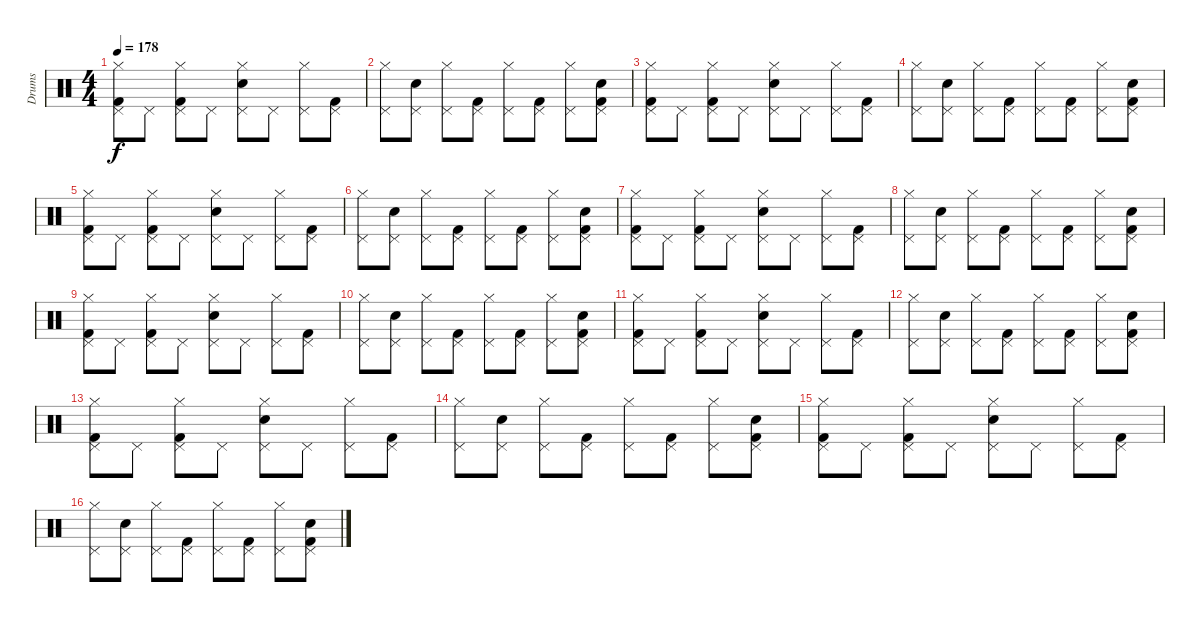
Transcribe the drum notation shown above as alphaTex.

\track ("Drums" "Drums") {instrument percussion}
\staff {score}
\articulation defaults
\ts (4 4)
\tempo 178
\clef neutral
\ks c
("Hi-Hat (closed)" "Pedal Hi-Hat (hit)" "Kick (hit) 2").8{dy f} "Pedal Hi-Hat (hit)".8 ("Hi-Hat (closed)" "Pedal Hi-Hat (hit)" "Kick (hit) 2").8 "Pedal Hi-Hat (hit)".8 ("Snare (hit) 2" "Hi-Hat (closed)" "Pedal Hi-Hat (hit)").8 "Pedal Hi-Hat (hit)".8 ("Hi-Hat (closed)" "Pedal Hi-Hat (hit)").8 ("Pedal Hi-Hat (hit)" "Kick (hit) 2").8 |
("Hi-Hat (closed)" "Pedal Hi-Hat (hit)").8 ("Snare (hit) 2" "Pedal Hi-Hat (hit)").8 ("Hi-Hat (closed)" "Pedal Hi-Hat (hit)").8 ("Kick (hit) 2" "Pedal Hi-Hat (hit)").8 ("Hi-Hat (closed)" "Pedal Hi-Hat (hit)").8 ("Kick (hit) 2" "Pedal Hi-Hat (hit)").8 ("Hi-Hat (closed)" "Pedal Hi-Hat (hit)").8 ("Kick (hit) 2" "Snare (hit) 2" "Pedal Hi-Hat (hit)").8 |
("Hi-Hat (closed)" "Pedal Hi-Hat (hit)" "Kick (hit) 2").8 "Pedal Hi-Hat (hit)".8 ("Hi-Hat (closed)" "Pedal Hi-Hat (hit)" "Kick (hit) 2").8 "Pedal Hi-Hat (hit)".8 ("Snare (hit) 2" "Hi-Hat (closed)" "Pedal Hi-Hat (hit)").8 "Pedal Hi-Hat (hit)".8 ("Hi-Hat (closed)" "Pedal Hi-Hat (hit)").8 ("Pedal Hi-Hat (hit)" "Kick (hit) 2").8 |
("Hi-Hat (closed)" "Pedal Hi-Hat (hit)").8 ("Snare (hit) 2" "Pedal Hi-Hat (hit)").8 ("Hi-Hat (closed)" "Pedal Hi-Hat (hit)").8 ("Kick (hit) 2" "Pedal Hi-Hat (hit)").8 ("Hi-Hat (closed)" "Pedal Hi-Hat (hit)").8 ("Kick (hit) 2" "Pedal Hi-Hat (hit)").8 ("Hi-Hat (closed)" "Pedal Hi-Hat (hit)").8 ("Kick (hit) 2" "Snare (hit) 2" "Pedal Hi-Hat (hit)").8 |
("Hi-Hat (closed)" "Pedal Hi-Hat (hit)" "Kick (hit) 2").8 "Pedal Hi-Hat (hit)".8 ("Hi-Hat (closed)" "Pedal Hi-Hat (hit)" "Kick (hit) 2").8 "Pedal Hi-Hat (hit)".8 ("Snare (hit) 2" "Hi-Hat (closed)" "Pedal Hi-Hat (hit)").8 "Pedal Hi-Hat (hit)".8 ("Hi-Hat (closed)" "Pedal Hi-Hat (hit)").8 ("Pedal Hi-Hat (hit)" "Kick (hit) 2").8 |
("Hi-Hat (closed)" "Pedal Hi-Hat (hit)").8 ("Snare (hit) 2" "Pedal Hi-Hat (hit)").8 ("Hi-Hat (closed)" "Pedal Hi-Hat (hit)").8 ("Kick (hit) 2" "Pedal Hi-Hat (hit)").8 ("Hi-Hat (closed)" "Pedal Hi-Hat (hit)").8 ("Kick (hit) 2" "Pedal Hi-Hat (hit)").8 ("Hi-Hat (closed)" "Pedal Hi-Hat (hit)").8 ("Kick (hit) 2" "Snare (hit) 2" "Pedal Hi-Hat (hit)").8 |
("Hi-Hat (closed)" "Pedal Hi-Hat (hit)" "Kick (hit) 2").8 "Pedal Hi-Hat (hit)".8 ("Hi-Hat (closed)" "Pedal Hi-Hat (hit)" "Kick (hit) 2").8 "Pedal Hi-Hat (hit)".8 ("Snare (hit) 2" "Hi-Hat (closed)" "Pedal Hi-Hat (hit)").8 "Pedal Hi-Hat (hit)".8 ("Hi-Hat (closed)" "Pedal Hi-Hat (hit)").8 ("Pedal Hi-Hat (hit)" "Kick (hit) 2").8 |
("Hi-Hat (closed)" "Pedal Hi-Hat (hit)").8 ("Snare (hit) 2" "Pedal Hi-Hat (hit)").8 ("Hi-Hat (closed)" "Pedal Hi-Hat (hit)").8 ("Kick (hit) 2" "Pedal Hi-Hat (hit)").8 ("Hi-Hat (closed)" "Pedal Hi-Hat (hit)").8 ("Kick (hit) 2" "Pedal Hi-Hat (hit)").8 ("Hi-Hat (closed)" "Pedal Hi-Hat (hit)").8 ("Kick (hit) 2" "Snare (hit) 2" "Pedal Hi-Hat (hit)").8 |
("Hi-Hat (closed)" "Pedal Hi-Hat (hit)" "Kick (hit) 2").8 "Pedal Hi-Hat (hit)".8 ("Hi-Hat (closed)" "Pedal Hi-Hat (hit)" "Kick (hit) 2").8 "Pedal Hi-Hat (hit)".8 ("Snare (hit) 2" "Hi-Hat (closed)" "Pedal Hi-Hat (hit)").8 "Pedal Hi-Hat (hit)".8 ("Hi-Hat (closed)" "Pedal Hi-Hat (hit)").8 ("Pedal Hi-Hat (hit)" "Kick (hit) 2").8 |
("Hi-Hat (closed)" "Pedal Hi-Hat (hit)").8 ("Snare (hit) 2" "Pedal Hi-Hat (hit)").8 ("Hi-Hat (closed)" "Pedal Hi-Hat (hit)").8 ("Kick (hit) 2" "Pedal Hi-Hat (hit)").8 ("Hi-Hat (closed)" "Pedal Hi-Hat (hit)").8 ("Kick (hit) 2" "Pedal Hi-Hat (hit)").8 ("Hi-Hat (closed)" "Pedal Hi-Hat (hit)").8 ("Kick (hit) 2" "Snare (hit) 2" "Pedal Hi-Hat (hit)").8 |
("Hi-Hat (closed)" "Pedal Hi-Hat (hit)" "Kick (hit) 2").8 "Pedal Hi-Hat (hit)".8 ("Hi-Hat (closed)" "Pedal Hi-Hat (hit)" "Kick (hit) 2").8 "Pedal Hi-Hat (hit)".8 ("Snare (hit) 2" "Hi-Hat (closed)" "Pedal Hi-Hat (hit)").8 "Pedal Hi-Hat (hit)".8 ("Hi-Hat (closed)" "Pedal Hi-Hat (hit)").8 ("Pedal Hi-Hat (hit)" "Kick (hit) 2").8 |
("Hi-Hat (closed)" "Pedal Hi-Hat (hit)").8 ("Snare (hit) 2" "Pedal Hi-Hat (hit)").8 ("Hi-Hat (closed)" "Pedal Hi-Hat (hit)").8 ("Kick (hit) 2" "Pedal Hi-Hat (hit)").8 ("Hi-Hat (closed)" "Pedal Hi-Hat (hit)").8 ("Kick (hit) 2" "Pedal Hi-Hat (hit)").8 ("Hi-Hat (closed)" "Pedal Hi-Hat (hit)").8 ("Kick (hit) 2" "Snare (hit) 2" "Pedal Hi-Hat (hit)").8 |
("Hi-Hat (closed)" "Pedal Hi-Hat (hit)" "Kick (hit) 2").8 "Pedal Hi-Hat (hit)".8 ("Hi-Hat (closed)" "Pedal Hi-Hat (hit)" "Kick (hit) 2").8 "Pedal Hi-Hat (hit)".8 ("Snare (hit) 2" "Hi-Hat (closed)" "Pedal Hi-Hat (hit)").8 "Pedal Hi-Hat (hit)".8 ("Hi-Hat (closed)" "Pedal Hi-Hat (hit)").8 ("Pedal Hi-Hat (hit)" "Kick (hit) 2").8 |
("Hi-Hat (closed)" "Pedal Hi-Hat (hit)").8 ("Snare (hit) 2" "Pedal Hi-Hat (hit)").8 ("Hi-Hat (closed)" "Pedal Hi-Hat (hit)").8 ("Kick (hit) 2" "Pedal Hi-Hat (hit)").8 ("Hi-Hat (closed)" "Pedal Hi-Hat (hit)").8 ("Kick (hit) 2" "Pedal Hi-Hat (hit)").8 ("Hi-Hat (closed)" "Pedal Hi-Hat (hit)").8 ("Kick (hit) 2" "Snare (hit) 2" "Pedal Hi-Hat (hit)").8 |
("Hi-Hat (closed)" "Pedal Hi-Hat (hit)" "Kick (hit) 2").8 "Pedal Hi-Hat (hit)".8 ("Hi-Hat (closed)" "Pedal Hi-Hat (hit)" "Kick (hit) 2").8 "Pedal Hi-Hat (hit)".8 ("Snare (hit) 2" "Hi-Hat (closed)" "Pedal Hi-Hat (hit)").8 "Pedal Hi-Hat (hit)".8 ("Hi-Hat (closed)" "Pedal Hi-Hat (hit)").8 ("Pedal Hi-Hat (hit)" "Kick (hit) 2").8 |
("Hi-Hat (closed)" "Pedal Hi-Hat (hit)").8 ("Snare (hit) 2" "Pedal Hi-Hat (hit)").8 ("Hi-Hat (closed)" "Pedal Hi-Hat (hit)").8 ("Kick (hit) 2" "Pedal Hi-Hat (hit)").8 ("Hi-Hat (closed)" "Pedal Hi-Hat (hit)").8 ("Kick (hit) 2" "Pedal Hi-Hat (hit)").8 ("Hi-Hat (closed)" "Pedal Hi-Hat (hit)").8 ("Kick (hit) 2" "Snare (hit) 2" "Pedal Hi-Hat (hit)").8
